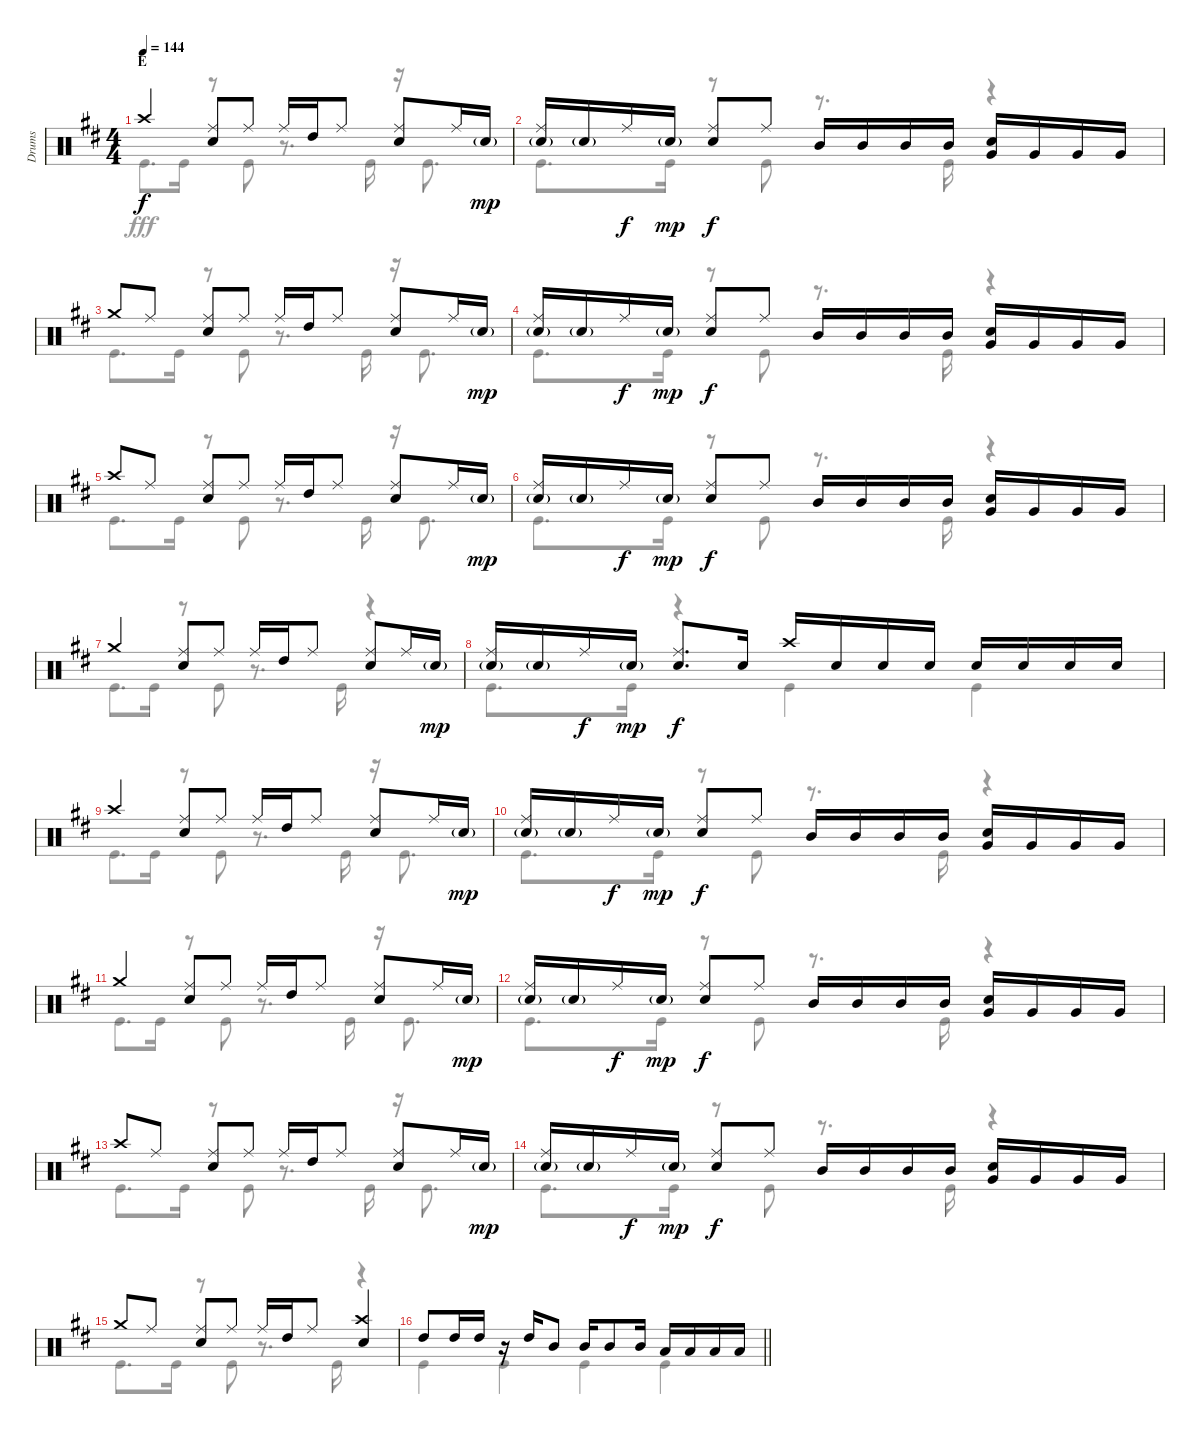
\track ("Drums" "Drums") {instrument percussion}
\staff {score}
\articulation defaults
\voice
\ts (4 4)
\section ("" "E")
\tempo 144
\clef neutral
\ks d "Crash high (hit)".4{dy f}
("Ride (middle)" "Snare (hit) 2").8 "Ride (middle)".8 "Ride (middle)".16 "High Tom (hit)".16 "Ride (middle)".8 ("Ride (middle)" "Snare (hit) 2").8 "Ride (middle)".16 "Snare (hit) 2"{g}.16{dy mp} |
("Ride (middle)" "Snare (hit) 2"{g}).16 "Snare (hit) 2"{g}.16 "Ride (middle)".16{dy f} "Snare (hit) 2"{g}.16{dy mp} ("Ride (middle)" "Snare (hit) 2").8{dy f} "Ride (middle)".8 "Mid Tom (hit)".16 "Mid Tom (hit)".16 "Mid Tom (hit)".16 "Mid Tom (hit)".16 ("Snare (hit) 2" "Very Low Tom (hit)").16 "Very Low Tom (hit)".16 "Very Low Tom (hit)".16 "Very Low Tom (hit)".16 |
"Crash medium (hit)".8 "Ride (middle)".8 ("Ride (middle)" "Snare (hit) 2").8 "Ride (middle)".8 "Ride (middle)".16 "High Tom (hit)".16 "Ride (middle)".8 ("Ride (middle)" "Snare (hit) 2").8 "Ride (middle)".16 "Snare (hit) 2"{g}.16{dy mp} |
("Ride (middle)" "Snare (hit) 2"{g}).16 "Snare (hit) 2"{g}.16 "Ride (middle)".16{dy f} "Snare (hit) 2"{g}.16{dy mp} ("Ride (middle)" "Snare (hit) 2").8{dy f} "Ride (middle)".8 "Mid Tom (hit)".16 "Mid Tom (hit)".16 "Mid Tom (hit)".16 "Mid Tom (hit)".16 ("Snare (hit) 2" "Very Low Tom (hit)").16 "Very Low Tom (hit)".16 "Very Low Tom (hit)".16 "Very Low Tom (hit)".16 |
"Crash high (hit)".8 "Ride (middle)".8 ("Ride (middle)" "Snare (hit) 2").8 "Ride (middle)".8 "Ride (middle)".16 "High Tom (hit)".16 "Ride (middle)".8 ("Ride (middle)" "Snare (hit) 2").8 "Ride (middle)".16 "Snare (hit) 2"{g}.16{dy mp} |
("Ride (middle)" "Snare (hit) 2"{g}).16 "Snare (hit) 2"{g}.16 "Ride (middle)".16{dy f} "Snare (hit) 2"{g}.16{dy mp} ("Ride (middle)" "Snare (hit) 2").8{dy f} "Ride (middle)".8 "Mid Tom (hit)".16 "Mid Tom (hit)".16 "Mid Tom (hit)".16 "Mid Tom (hit)".16 ("Snare (hit) 2" "Very Low Tom (hit)").16 "Very Low Tom (hit)".16 "Very Low Tom (hit)".16 "Very Low Tom (hit)".16 |
"Crash medium (hit)".4 ("Ride (middle)" "Snare (hit) 2").8 "Ride (middle)".8 "Ride (middle)".16 "High Tom (hit)".16 "Ride (middle)".8 ("Ride (middle)" "Snare (hit) 2").8 "Ride (middle)".16 "Snare (hit) 2"{g}.16{dy mp} |
("Ride (middle)" "Snare (hit) 2"{g}).16 "Snare (hit) 2"{g}.16 "Ride (middle)".16{dy f} "Snare (hit) 2"{g}.16{dy mp} ("Ride (middle)" "Snare (hit) 2").8{d dy f} "Snare (hit) 2".16 "Crash high (hit)".16 "Snare (hit) 2".16 "Snare (hit) 2".16 "Snare (hit) 2".16 "Snare (hit) 2".16 "Snare (hit) 2".16 "Snare (hit) 2".16 "Snare (hit) 2".16 |
"Crash high (hit)".4 ("Ride (middle)" "Snare (hit) 2").8 "Ride (middle)".8 "Ride (middle)".16 "High Tom (hit)".16 "Ride (middle)".8 ("Ride (middle)" "Snare (hit) 2").8 "Ride (middle)".16 "Snare (hit) 2"{g}.16{dy mp} |
("Ride (middle)" "Snare (hit) 2"{g}).16 "Snare (hit) 2"{g}.16 "Ride (middle)".16{dy f} "Snare (hit) 2"{g}.16{dy mp} ("Ride (middle)" "Snare (hit) 2").8{dy f} "Ride (middle)".8 "Mid Tom (hit)".16 "Mid Tom (hit)".16 "Mid Tom (hit)".16 "Mid Tom (hit)".16 ("Snare (hit) 2" "Very Low Tom (hit)").16 "Very Low Tom (hit)".16 "Very Low Tom (hit)".16 "Very Low Tom (hit)".16 |
"Crash medium (hit)".4 ("Ride (middle)" "Snare (hit) 2").8 "Ride (middle)".8 "Ride (middle)".16 "High Tom (hit)".16 "Ride (middle)".8 ("Ride (middle)" "Snare (hit) 2").8 "Ride (middle)".16 "Snare (hit) 2"{g}.16{dy mp} |
("Ride (middle)" "Snare (hit) 2"{g}).16 "Snare (hit) 2"{g}.16 "Ride (middle)".16{dy f} "Snare (hit) 2"{g}.16{dy mp} ("Ride (middle)" "Snare (hit) 2").8{dy f} "Ride (middle)".8 "Mid Tom (hit)".16 "Mid Tom (hit)".16 "Mid Tom (hit)".16 "Mid Tom (hit)".16 ("Snare (hit) 2" "Very Low Tom (hit)").16 "Very Low Tom (hit)".16 "Very Low Tom (hit)".16 "Very Low Tom (hit)".16 |
"Crash high (hit)".8 "Ride (middle)".8 ("Ride (middle)" "Snare (hit) 2").8 "Ride (middle)".8 "Ride (middle)".16 "High Tom (hit)".16 "Ride (middle)".8 ("Ride (middle)" "Snare (hit) 2").8 "Ride (middle)".16 "Snare (hit) 2"{g}.16{dy mp} |
("Ride (middle)" "Snare (hit) 2"{g}).16 "Snare (hit) 2"{g}.16 "Ride (middle)".16{dy f} "Snare (hit) 2"{g}.16{dy mp} ("Ride (middle)" "Snare (hit) 2").8{dy f} "Ride (middle)".8 "Mid Tom (hit)".16 "Mid Tom (hit)".16 "Mid Tom (hit)".16 "Mid Tom (hit)".16 ("Snare (hit) 2" "Very Low Tom (hit)").16 "Very Low Tom (hit)".16 "Very Low Tom (hit)".16 "Very Low Tom (hit)".16 |
"Crash medium (hit)".8 "Ride (middle)".8 ("Ride (middle)" "Snare (hit) 2").8 "Ride (middle)".8 "Ride (middle)".16 "High Tom (hit)".16 "Ride (middle)".8 ("Crash high (hit)" "Snare (hit) 2").4 |
\barLineRight lightlight "High Tom (hit)".8 "High Tom (hit)".16 "High Tom (hit)".16
r.16 "High Tom (hit)".16 "Mid Tom (hit)".8 "Mid Tom (hit)".16 "Mid Tom (hit)".8 "Mid Tom (hit)".16 "Low Tom (hit)".16 "Low Tom (hit)".16 "Low Tom (hit)".16 "Low Tom (hit)".16
\voice
\clef neutral
\ottava regular
\simile none
\ks d "Kick (hit)".8{d dy fff} "Kick (hit)".16
r.8 "Kick (hit)".8 r.8{d} "Kick (hit)".16 r.16 "Kick (hit)".8{d} |
"Kick (hit)".8{d} "Kick (hit)".16 r.8 "Kick (hit)".8 r.8{d} "Kick (hit)".16 r.4 |
"Kick (hit)".8{d} "Kick (hit)".16 r.8 "Kick (hit)".8 r.8{d} "Kick (hit)".16 r.16 "Kick (hit)".8{d} |
"Kick (hit)".8{d} "Kick (hit)".16 r.8 "Kick (hit)".8 r.8{d} "Kick (hit)".16 r.4 |
"Kick (hit)".8{d} "Kick (hit)".16 r.8 "Kick (hit)".8 r.8{d} "Kick (hit)".16 r.16 "Kick (hit)".8{d} |
"Kick (hit)".8{d} "Kick (hit)".16 r.8 "Kick (hit)".8 r.8{d} "Kick (hit)".16 r.4 |
"Kick (hit)".8{d} "Kick (hit)".16 r.8 "Kick (hit)".8 r.8{d} "Kick (hit)".16 r.4 |
"Kick (hit)".8{d} "Kick (hit)".16 r.4 "Kick (hit)".4 "Kick (hit)".4 |
"Kick (hit)".8{d} "Kick (hit)".16 r.8 "Kick (hit)".8 r.8{d} "Kick (hit)".16 r.16 "Kick (hit)".8{d} |
"Kick (hit)".8{d} "Kick (hit)".16 r.8 "Kick (hit)".8 r.8{d} "Kick (hit)".16 r.4 |
"Kick (hit)".8{d} "Kick (hit)".16 r.8 "Kick (hit)".8 r.8{d} "Kick (hit)".16 r.16 "Kick (hit)".8{d} |
"Kick (hit)".8{d} "Kick (hit)".16 r.8 "Kick (hit)".8 r.8{d} "Kick (hit)".16 r.4 |
"Kick (hit)".8{d} "Kick (hit)".16 r.8 "Kick (hit)".8 r.8{d} "Kick (hit)".16 r.16 "Kick (hit)".8{d} |
"Kick (hit)".8{d} "Kick (hit)".16 r.8 "Kick (hit)".8 r.8{d} "Kick (hit)".16 r.4 |
"Kick (hit)".8{d} "Kick (hit)".16 r.8 "Kick (hit)".8 r.8{d} "Kick (hit)".16 r.4 |
\barLineRight lightlight "Kick (hit)".4 "Kick (hit)".4 "Kick (hit)".4 "Kick (hit)".4
